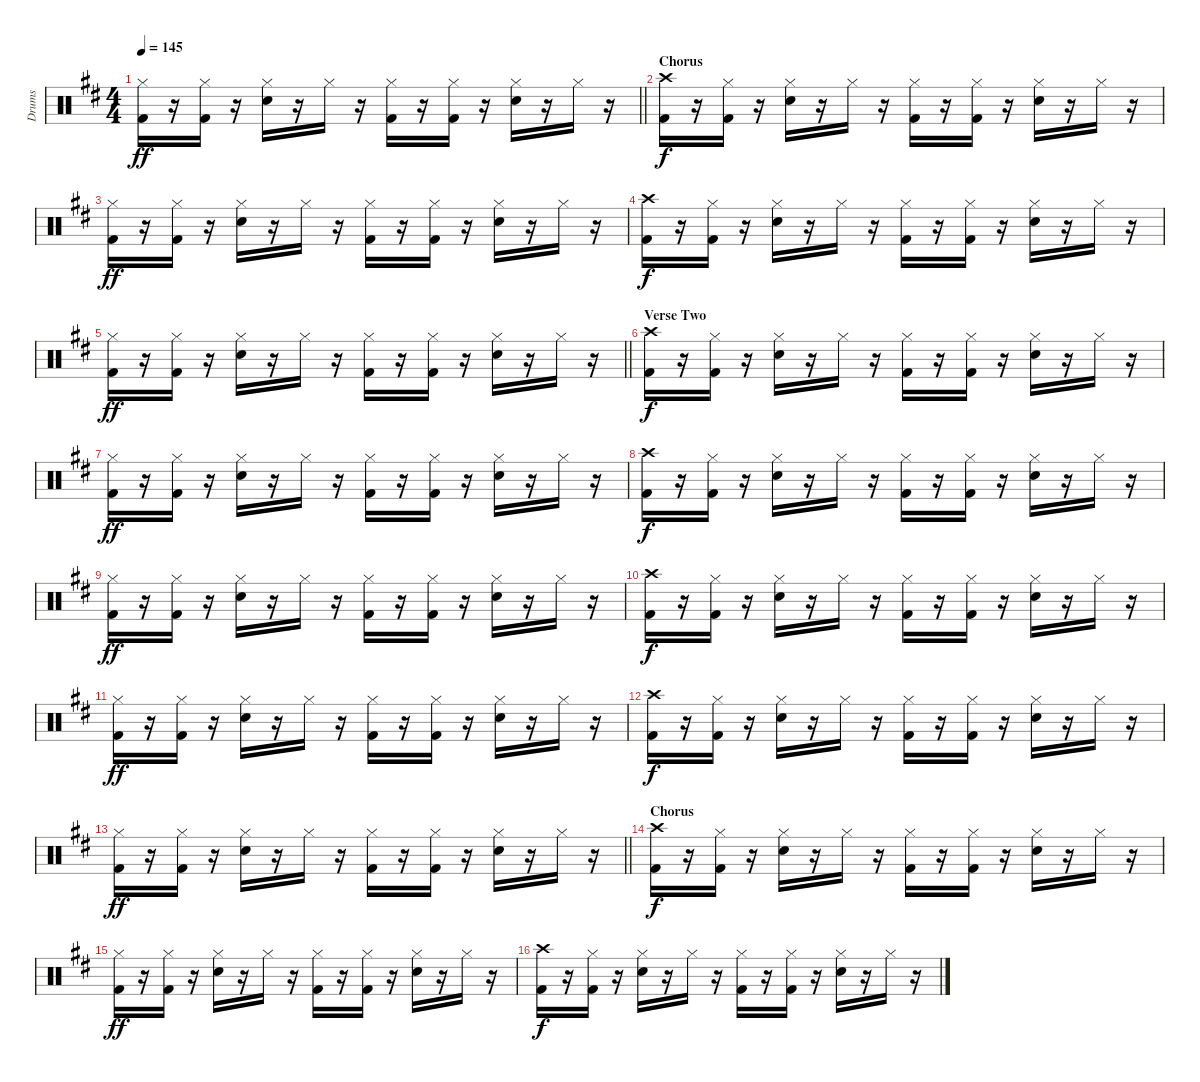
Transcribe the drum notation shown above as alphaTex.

\track ("Drums" "Drums") {instrument percussion}
\staff {score}
\articulation defaults
\ts (4 4)
\tempo 145
\clef neutral
\barLineRight lightlight
\ks d
("Hi-Hat (closed)" "Kick (hit) 2").16{dy ff} r.16 ("Hi-Hat (closed)" "Kick (hit) 2").16 r.16 ("Hi-Hat (closed)" "Snare (hit) 2").16 r.16 "Hi-Hat (closed)".16 r.16 ("Hi-Hat (closed)" "Kick (hit) 2").16 r.16 ("Hi-Hat (closed)" "Kick (hit) 2").16 r.16 ("Hi-Hat (closed)" "Snare (hit) 2").16 r.16 "Hi-Hat (closed)".16 r.16 |
\section ("" "Chorus")
("Crash high (hit)" "Kick (hit) 2").16{dy f} r.16 ("Hi-Hat (closed)" "Kick (hit) 2").16 r.16 ("Hi-Hat (closed)" "Snare (hit) 2").16 r.16 "Hi-Hat (closed)".16 r.16 ("Hi-Hat (closed)" "Kick (hit) 2").16 r.16 ("Hi-Hat (closed)" "Kick (hit) 2").16 r.16 ("Hi-Hat (closed)" "Snare (hit) 2").16 r.16 "Hi-Hat (closed)".16 r.16 |
("Hi-Hat (closed)" "Kick (hit) 2").16{dy ff} r.16 ("Hi-Hat (closed)" "Kick (hit) 2").16 r.16 ("Hi-Hat (closed)" "Snare (hit) 2").16 r.16 "Hi-Hat (closed)".16 r.16 ("Hi-Hat (closed)" "Kick (hit) 2").16 r.16 ("Hi-Hat (closed)" "Kick (hit) 2").16 r.16 ("Hi-Hat (closed)" "Snare (hit) 2").16 r.16 "Hi-Hat (closed)".16 r.16 |
("Crash high (hit)" "Kick (hit) 2").16{dy f} r.16 ("Hi-Hat (closed)" "Kick (hit) 2").16 r.16 ("Hi-Hat (closed)" "Snare (hit) 2").16 r.16 "Hi-Hat (closed)".16 r.16 ("Hi-Hat (closed)" "Kick (hit) 2").16 r.16 ("Hi-Hat (closed)" "Kick (hit) 2").16 r.16 ("Hi-Hat (closed)" "Snare (hit) 2").16 r.16 "Hi-Hat (closed)".16 r.16 |
\barLineRight lightlight
("Hi-Hat (closed)" "Kick (hit) 2").16{dy ff} r.16 ("Hi-Hat (closed)" "Kick (hit) 2").16 r.16 ("Hi-Hat (closed)" "Snare (hit) 2").16 r.16 "Hi-Hat (closed)".16 r.16 ("Hi-Hat (closed)" "Kick (hit) 2").16 r.16 ("Hi-Hat (closed)" "Kick (hit) 2").16 r.16 ("Hi-Hat (closed)" "Snare (hit) 2").16 r.16 "Hi-Hat (closed)".16 r.16 |
\section ("" "Verse Two")
("Crash high (hit)" "Kick (hit) 2").16{dy f} r.16 ("Hi-Hat (closed)" "Kick (hit) 2").16 r.16 ("Hi-Hat (closed)" "Snare (hit) 2").16 r.16 "Hi-Hat (closed)".16 r.16 ("Hi-Hat (closed)" "Kick (hit) 2").16 r.16 ("Hi-Hat (closed)" "Kick (hit) 2").16 r.16 ("Hi-Hat (closed)" "Snare (hit) 2").16 r.16 "Hi-Hat (closed)".16 r.16 |
("Hi-Hat (closed)" "Kick (hit) 2").16{dy ff} r.16 ("Hi-Hat (closed)" "Kick (hit) 2").16 r.16 ("Hi-Hat (closed)" "Snare (hit) 2").16 r.16 "Hi-Hat (closed)".16 r.16 ("Hi-Hat (closed)" "Kick (hit) 2").16 r.16 ("Hi-Hat (closed)" "Kick (hit) 2").16 r.16 ("Hi-Hat (closed)" "Snare (hit) 2").16 r.16 "Hi-Hat (closed)".16 r.16 |
("Crash high (hit)" "Kick (hit) 2").16{dy f} r.16 ("Hi-Hat (closed)" "Kick (hit) 2").16 r.16 ("Hi-Hat (closed)" "Snare (hit) 2").16 r.16 "Hi-Hat (closed)".16 r.16 ("Hi-Hat (closed)" "Kick (hit) 2").16 r.16 ("Hi-Hat (closed)" "Kick (hit) 2").16 r.16 ("Hi-Hat (closed)" "Snare (hit) 2").16 r.16 "Hi-Hat (closed)".16 r.16 |
("Hi-Hat (closed)" "Kick (hit) 2").16{dy ff} r.16 ("Hi-Hat (closed)" "Kick (hit) 2").16 r.16 ("Hi-Hat (closed)" "Snare (hit) 2").16 r.16 "Hi-Hat (closed)".16 r.16 ("Hi-Hat (closed)" "Kick (hit) 2").16 r.16 ("Hi-Hat (closed)" "Kick (hit) 2").16 r.16 ("Hi-Hat (closed)" "Snare (hit) 2").16 r.16 "Hi-Hat (closed)".16 r.16 |
("Crash high (hit)" "Kick (hit) 2").16{dy f} r.16 ("Hi-Hat (closed)" "Kick (hit) 2").16 r.16 ("Hi-Hat (closed)" "Snare (hit) 2").16 r.16 "Hi-Hat (closed)".16 r.16 ("Hi-Hat (closed)" "Kick (hit) 2").16 r.16 ("Hi-Hat (closed)" "Kick (hit) 2").16 r.16 ("Hi-Hat (closed)" "Snare (hit) 2").16 r.16 "Hi-Hat (closed)".16 r.16 |
("Hi-Hat (closed)" "Kick (hit) 2").16{dy ff} r.16 ("Hi-Hat (closed)" "Kick (hit) 2").16 r.16 ("Hi-Hat (closed)" "Snare (hit) 2").16 r.16 "Hi-Hat (closed)".16 r.16 ("Hi-Hat (closed)" "Kick (hit) 2").16 r.16 ("Hi-Hat (closed)" "Kick (hit) 2").16 r.16 ("Hi-Hat (closed)" "Snare (hit) 2").16 r.16 "Hi-Hat (closed)".16 r.16 |
("Crash high (hit)" "Kick (hit) 2").16{dy f} r.16 ("Hi-Hat (closed)" "Kick (hit) 2").16 r.16 ("Hi-Hat (closed)" "Snare (hit) 2").16 r.16 "Hi-Hat (closed)".16 r.16 ("Hi-Hat (closed)" "Kick (hit) 2").16 r.16 ("Hi-Hat (closed)" "Kick (hit) 2").16 r.16 ("Hi-Hat (closed)" "Snare (hit) 2").16 r.16 "Hi-Hat (closed)".16 r.16 |
\barLineRight lightlight
("Hi-Hat (closed)" "Kick (hit) 2").16{dy ff} r.16 ("Hi-Hat (closed)" "Kick (hit) 2").16 r.16 ("Hi-Hat (closed)" "Snare (hit) 2").16 r.16 "Hi-Hat (closed)".16 r.16 ("Hi-Hat (closed)" "Kick (hit) 2").16 r.16 ("Hi-Hat (closed)" "Kick (hit) 2").16 r.16 ("Hi-Hat (closed)" "Snare (hit) 2").16 r.16 "Hi-Hat (closed)".16 r.16 |
\section ("" "Chorus")
("Crash high (hit)" "Kick (hit) 2").16{dy f} r.16 ("Hi-Hat (closed)" "Kick (hit) 2").16 r.16 ("Hi-Hat (closed)" "Snare (hit) 2").16 r.16 "Hi-Hat (closed)".16 r.16 ("Hi-Hat (closed)" "Kick (hit) 2").16 r.16 ("Hi-Hat (closed)" "Kick (hit) 2").16 r.16 ("Hi-Hat (closed)" "Snare (hit) 2").16 r.16 "Hi-Hat (closed)".16 r.16 |
("Hi-Hat (closed)" "Kick (hit) 2").16{dy ff} r.16 ("Hi-Hat (closed)" "Kick (hit) 2").16 r.16 ("Hi-Hat (closed)" "Snare (hit) 2").16 r.16 "Hi-Hat (closed)".16 r.16 ("Hi-Hat (closed)" "Kick (hit) 2").16 r.16 ("Hi-Hat (closed)" "Kick (hit) 2").16 r.16 ("Hi-Hat (closed)" "Snare (hit) 2").16 r.16 "Hi-Hat (closed)".16 r.16 |
("Crash high (hit)" "Kick (hit) 2").16{dy f} r.16 ("Hi-Hat (closed)" "Kick (hit) 2").16 r.16 ("Hi-Hat (closed)" "Snare (hit) 2").16 r.16 "Hi-Hat (closed)".16 r.16 ("Hi-Hat (closed)" "Kick (hit) 2").16 r.16 ("Hi-Hat (closed)" "Kick (hit) 2").16 r.16 ("Hi-Hat (closed)" "Snare (hit) 2").16 r.16 "Hi-Hat (closed)".16 r.16
